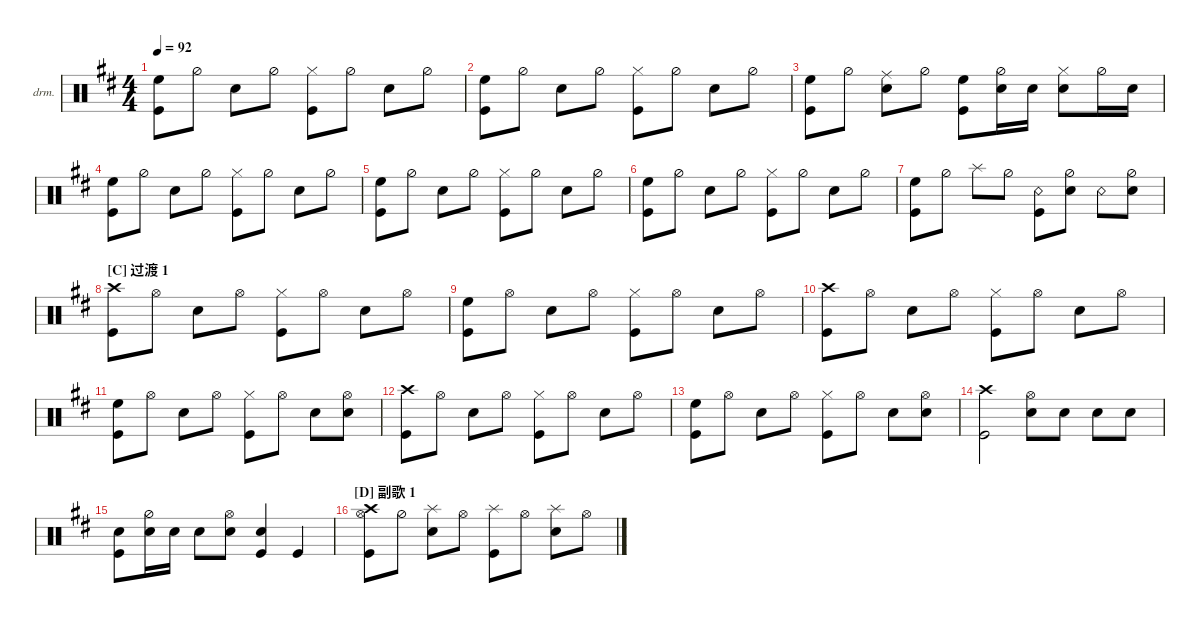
\defaultSystemsLayout 4
\hideDynamics
\bracketExtendMode nobrackets
\firstSystemTrackNameOrientation horizontal
\otherSystemsTrackNameOrientation horizontal
\track ("Drumkit" "drm.") {instrument percussion}
\staff {score}
\articulation defaults
\ts (4 4)
\tempo 92
\clef neutral
\ks d
("High Floor Tom (hit)" "Kick (hit)").8{dy mf} "Hi-Hat (half)".8 "Snare (hit) 2".8 "Hi-Hat (half)".8 ("Hi-Hat (closed)" "Kick (hit)").8 "Hi-Hat (half)".8 "Snare (hit) 2".8 "Hi-Hat (half)".8 |
("High Floor Tom (hit)" "Kick (hit)").8 "Hi-Hat (half)".8 "Snare (hit) 2".8 "Hi-Hat (half)".8 ("Hi-Hat (closed)" "Kick (hit)").8 "Hi-Hat (half)".8 "Snare (hit) 2".8 "Hi-Hat (half)".8 |
("High Floor Tom (hit)" "Kick (hit)").8 "Hi-Hat (half)".8 ("Snare (hit) 2" "Ride (middle)").8 "Hi-Hat (half)".8 ("High Floor Tom (hit)" "Kick (hit)").8 ("Snare (hit) 2" "Hi-Hat (half)").16 "Snare (hit) 2".16 ("Hi-Hat (closed)" "Snare (hit) 2").8 "Hi-Hat (half)".16 "Snare (hit) 2".16 |
("High Floor Tom (hit)" "Kick (hit)").8 "Hi-Hat (half)".8 "Snare (hit) 2".8 "Hi-Hat (half)".8 ("Hi-Hat (closed)" "Kick (hit)").8 "Hi-Hat (half)".8 "Snare (hit) 2".8 "Hi-Hat (half)".8 |
("High Floor Tom (hit)" "Kick (hit)").8 "Hi-Hat (half)".8 "Snare (hit) 2".8 "Hi-Hat (half)".8 ("Hi-Hat (closed)" "Kick (hit)").8 "Hi-Hat (half)".8 "Snare (hit) 2".8 "Hi-Hat (half)".8 |
("High Floor Tom (hit)" "Kick (hit)").8 "Hi-Hat (half)".8 "Snare (hit) 2".8 "Hi-Hat (half)".8 ("Hi-Hat (closed)" "Kick (hit)").8 "Hi-Hat (half)".8 "Snare (hit) 2".8 "Hi-Hat (half)".8 |
("High Floor Tom (hit)" "Kick (hit)").8 "Hi-Hat (half)".8 "Splash (hit)".8 "Hi-Hat (half)".8 ("Snare (rim shot)" "Kick (hit)").8 ("Snare (hit) 2" "Hi-Hat (half)").8 "Snare (rim shot)".8 ("Snare (hit) 2" "Hi-Hat (half)").8 |
\section ("C" "过渡 1")
("Kick (hit)" "Crash high (hit)").8 "Hi-Hat (open)".8 "Snare (hit) 2".8 "Hi-Hat (open)".8 ("Hi-Hat (closed)" "Kick (hit)").8 "Hi-Hat (open)".8 "Snare (hit) 2".8 "Hi-Hat (open)".8 |
("High Floor Tom (hit)" "Kick (hit)").8 "Hi-Hat (open)".8 "Snare (hit) 2".8 "Hi-Hat (open)".8 ("Hi-Hat (closed)" "Kick (hit)").8 "Hi-Hat (open)".8 "Snare (hit) 2".8 "Hi-Hat (open)".8 |
("Kick (hit)" "Crash high (hit)").8 "Hi-Hat (open)".8 "Snare (hit) 2".8 "Hi-Hat (open)".8 ("Hi-Hat (closed)" "Kick (hit)").8 "Hi-Hat (open)".8 "Snare (hit) 2".8 "Hi-Hat (open)".8 |
("High Floor Tom (hit)" "Kick (hit)").8 "Hi-Hat (open)".8 "Snare (hit) 2".8 "Hi-Hat (open)".8 ("Hi-Hat (closed)" "Kick (hit)").8 "Hi-Hat (open)".8 "Snare (hit) 2".8 ("Hi-Hat (open)" "Snare (hit) 2").8 |
("Kick (hit)" "Crash high (hit)").8 "Hi-Hat (open)".8 "Snare (hit) 2".8 "Hi-Hat (open)".8 ("Hi-Hat (closed)" "Kick (hit)").8 "Hi-Hat (open)".8 "Snare (hit) 2".8 "Hi-Hat (open)".8 |
("High Floor Tom (hit)" "Kick (hit)").8 "Hi-Hat (open)".8 "Snare (hit) 2".8 "Hi-Hat (open)".8 ("Hi-Hat (closed)" "Kick (hit)").8 "Hi-Hat (open)".8 "Snare (hit) 2".8 ("Hi-Hat (open)" "Snare (hit) 2").8 |
("Crash high (hit)" "Kick (hit)").2 ("Snare (hit) 2" "Hi-Hat (open)").8 "Snare (hit) 2".8 "Snare (hit) 2".8 "Snare (hit) 2".8 |
("Kick (hit)" "Snare (hit) 2").8 ("Snare (hit) 2" "Hi-Hat (half)").16 "Snare (hit) 2".16 "Snare (hit) 2".8 ("Snare (hit) 2" "Hi-Hat (open)").8 ("Snare (hit) 2" "Kick (hit)").4 "Kick (hit)".4 |
\section ("D" "副歌 1")
("Crash high (hit)" "Kick (hit)" "Hi-Hat (open)").8 "Hi-Hat (half)".8 ("Snare (hit) 2" "Splash (hit)").8 "Hi-Hat (open)".8 ("Kick (hit)" "Splash (hit)").8 "Hi-Hat (open)".8 ("Snare (hit) 2" "Splash (hit)").8 "Hi-Hat (open)".8
